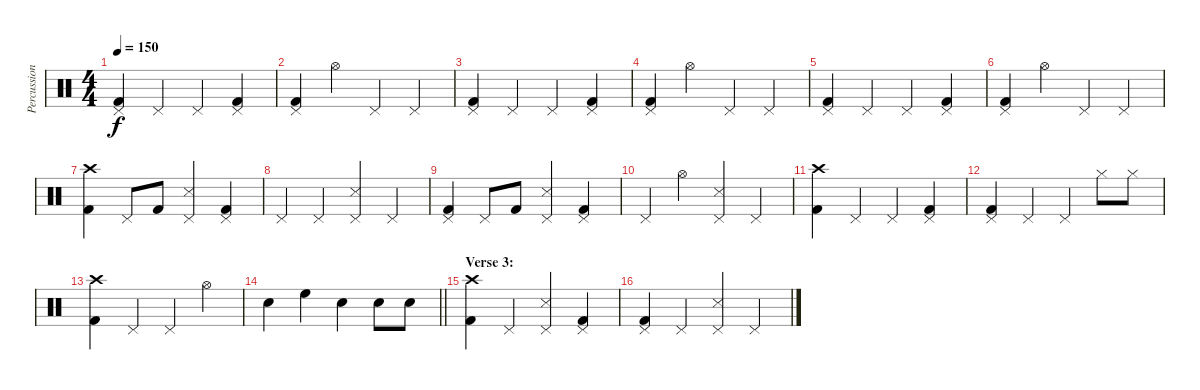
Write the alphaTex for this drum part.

\track ("Percussion" "Percussion") {instrument percussion}
\staff {score}
\articulation defaults
\ts (4 4)
\tempo 150
\clef neutral
\ks c
("Pedal Hi-Hat (hit)" "Kick (hit) 2").4{dy f} "Pedal Hi-Hat (hit)".4 "Pedal Hi-Hat (hit)".4 ("Pedal Hi-Hat (hit)" "Kick (hit) 2").4 |
("Pedal Hi-Hat (hit)" "Kick (hit) 2").4 "Hi-Hat (open)".4 "Pedal Hi-Hat (hit)".4 "Pedal Hi-Hat (hit)".4 |
("Pedal Hi-Hat (hit)" "Kick (hit) 2").4 "Pedal Hi-Hat (hit)".4 "Pedal Hi-Hat (hit)".4 ("Pedal Hi-Hat (hit)" "Kick (hit) 2").4 |
("Pedal Hi-Hat (hit)" "Kick (hit) 2").4 "Hi-Hat (open)".4 "Pedal Hi-Hat (hit)".4 "Pedal Hi-Hat (hit)".4 |
("Pedal Hi-Hat (hit)" "Kick (hit) 2").4 "Pedal Hi-Hat (hit)".4 "Pedal Hi-Hat (hit)".4 ("Pedal Hi-Hat (hit)" "Kick (hit) 2").4 |
("Pedal Hi-Hat (hit)" "Kick (hit) 2").4 "Hi-Hat (open)".4 "Pedal Hi-Hat (hit)".4 "Pedal Hi-Hat (hit)".4 |
("Crash high (hit)" "Kick (hit) 2").4 "Pedal Hi-Hat (hit)".8 "Kick (hit) 2".8 ("Pedal Hi-Hat (hit)" "Snare (side stick) 3").4 ("Pedal Hi-Hat (hit)" "Kick (hit) 2").4 |
"Pedal Hi-Hat (hit)".4 "Pedal Hi-Hat (hit)".4 ("Pedal Hi-Hat (hit)" "Snare (side stick) 3").4 "Pedal Hi-Hat (hit)".4 |
("Pedal Hi-Hat (hit)" "Kick (hit) 2").4 "Pedal Hi-Hat (hit)".8 "Kick (hit) 2".8 ("Pedal Hi-Hat (hit)" "Snare (side stick) 3").4 ("Pedal Hi-Hat (hit)" "Kick (hit) 2").4 |
"Pedal Hi-Hat (hit)".4 "Hi-Hat (open)".4 ("Pedal Hi-Hat (hit)" "Snare (side stick) 3").4 "Pedal Hi-Hat (hit)".4 |
("Crash high (hit)" "Kick (hit) 2").4 "Pedal Hi-Hat (hit)".4 "Pedal Hi-Hat (hit)".4 ("Pedal Hi-Hat (hit)" "Kick (hit) 2").4 |
("Pedal Hi-Hat (hit)" "Kick (hit) 2").4 "Pedal Hi-Hat (hit)".4 "Pedal Hi-Hat (hit)".4 "Hi-Hat (closed)".8 "Hi-Hat (closed)".8 |
("Crash high (hit)" "Kick (hit) 2").4 "Pedal Hi-Hat (hit)".4 "Pedal Hi-Hat (hit)".4 "Hi-Hat (open)".4 |
\barLineRight lightlight "Electric Snare (hit)".4 "High Floor Tom (hit)".4 "Electric Snare (hit)".4 "Electric Snare (hit)".8 "Electric Snare (hit)".8
|
\section ("" "Verse 3:")
("Crash high (hit)" "Kick (hit) 2").4 "Pedal Hi-Hat (hit)".4 ("Pedal Hi-Hat (hit)" "Snare (side stick) 3").4 ("Pedal Hi-Hat (hit)" "Kick (hit) 2").4 |
("Pedal Hi-Hat (hit)" "Kick (hit) 2").4 "Pedal Hi-Hat (hit)".4 ("Pedal Hi-Hat (hit)" "Snare (side stick) 3").4 "Pedal Hi-Hat (hit)".4
